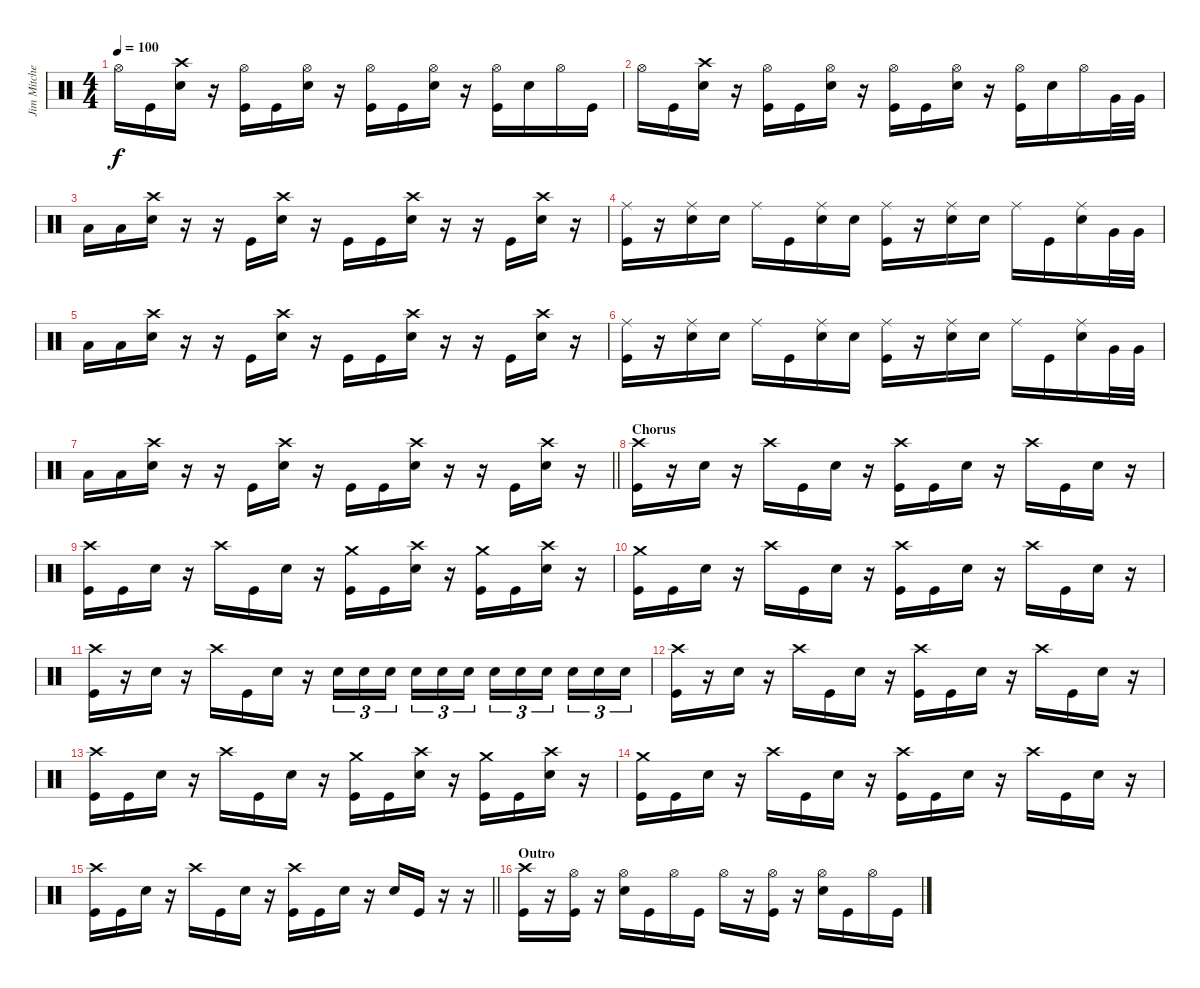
\track ("Jim Mitchell" "Jim Mitche") {instrument percussion}
\staff {score}
\articulation defaults
\ts (4 4)
\tempo 100
\clef neutral
\ks c "Hi-Hat (open)".16{dy f} "Kick (hit)".16
("Crash high (hit)" "Snare (hit) 2").16 r.16 ("Hi-Hat (open)" "Kick (hit)").16 "Kick (hit)".16 ("Hi-Hat (open)" "Snare (hit) 2").16 r.16 ("Hi-Hat (open)" "Kick (hit)").16 "Kick (hit)".16 ("Hi-Hat (open)" "Snare (hit) 2").16 r.16 ("Hi-Hat (open)" "Kick (hit)").16 "Snare (hit) 2".16 "Hi-Hat (open)".16 "Kick (hit)".16 |
"Hi-Hat (open)".16 "Kick (hit)".16 ("Crash high (hit)" "Snare (hit) 2").16 r.16 ("Hi-Hat (open)" "Kick (hit)").16 "Kick (hit)".16 ("Hi-Hat (open)" "Snare (hit) 2").16 r.16 ("Hi-Hat (open)" "Kick (hit)").16 "Kick (hit)".16 ("Hi-Hat (open)" "Snare (hit) 2").16 r.16 ("Hi-Hat (open)" "Kick (hit)").16 "Snare (hit) 2".16 "Hi-Hat (open)".16 "Very Low Tom (hit)".32 "Very Low Tom (hit)".32 |
"Low Floor Tom (hit)".16 "Low Floor Tom (hit)".16 ("Crash high (hit)" "Snare (hit) 2").16 r.16 r.16 "Kick (hit)".16 ("Crash high (hit)" "Snare (hit) 2").16 r.16 "Kick (hit)".16 "Kick (hit)".16 ("Crash high (hit)" "Snare (hit) 2").16 r.16 r.16 "Kick (hit)".16 ("Crash high (hit)" "Snare (hit) 2").16 r.16 |
("Ride (middle)" "Kick (hit)").16 r.16 ("Ride (middle)" "Snare (hit) 2").16 "Snare (hit) 2".16 "Ride (middle)".16 "Kick (hit)".16 ("Ride (middle)" "Snare (hit) 2").16 "Snare (hit) 2".16 ("Ride (middle)" "Kick (hit)").16 r.16 ("Ride (middle)" "Snare (hit) 2").16 "Snare (hit) 2".16 "Ride (middle)".16 "Kick (hit)".16 ("Ride (middle)" "Snare (hit) 2").16 "Very Low Tom (hit)".32 "Very Low Tom (hit)".32 |
"Low Floor Tom (hit)".16 "Low Floor Tom (hit)".16 ("Crash high (hit)" "Snare (hit) 2").16 r.16 r.16 "Kick (hit)".16 ("Crash high (hit)" "Snare (hit) 2").16 r.16 "Kick (hit)".16 "Kick (hit)".16 ("Crash high (hit)" "Snare (hit) 2").16 r.16 r.16 "Kick (hit)".16 ("Crash high (hit)" "Snare (hit) 2").16 r.16 |
("Ride (middle)" "Kick (hit)").16 r.16 ("Ride (middle)" "Snare (hit) 2").16 "Snare (hit) 2".16 "Ride (middle)".16 "Kick (hit)".16 ("Ride (middle)" "Snare (hit) 2").16 "Snare (hit) 2".16 ("Ride (middle)" "Kick (hit)").16 r.16 ("Ride (middle)" "Snare (hit) 2").16 "Snare (hit) 2".16 "Ride (middle)".16 "Kick (hit)".16 ("Ride (middle)" "Snare (hit) 2").16 "Very Low Tom (hit)".32 "Very Low Tom (hit)".32 |
\barLineRight lightlight "Low Floor Tom (hit)".16 "Low Floor Tom (hit)".16
("Crash high (hit)" "Snare (hit) 2").16 r.16 r.16 "Kick (hit)".16 ("Crash high (hit)" "Snare (hit) 2").16 r.16 "Kick (hit)".16 "Kick (hit)".16 ("Crash high (hit)" "Snare (hit) 2").16 r.16 r.16 "Kick (hit)".16 ("Crash high (hit)" "Snare (hit) 2").16 r.16 |
\section ("" "Chorus")
("Crash high (hit)" "Kick (hit)").16 r.16 "Snare (hit) 2".16 r.16 "Crash high (hit)".16 "Kick (hit)".16 "Snare (hit) 2".16 r.16 ("Crash high (hit)" "Kick (hit)").16 "Kick (hit)".16 "Snare (hit) 2".16 r.16 "Crash high (hit)".16 "Kick (hit)".16 "Snare (hit) 2".16 r.16 |
("Crash high (hit)" "Kick (hit)").16 "Kick (hit)".16 "Snare (hit) 2".16 r.16 "Crash high (hit)".16 "Kick (hit)".16 "Snare (hit) 2".16 r.16 ("Crash medium (hit)" "Kick (hit)").16 "Kick (hit)".16 ("Crash high (hit)" "Snare (hit) 2").16 r.16 ("Crash medium (hit)" "Kick (hit)").16 "Kick (hit)".16 ("Crash high (hit)" "Snare (hit) 2").16 r.16 |
("Crash medium (hit)" "Kick (hit)").16 "Kick (hit)".16 "Snare (hit) 2".16 r.16 "Crash high (hit)".16 "Kick (hit)".16 "Snare (hit) 2".16 r.16 ("Crash high (hit)" "Kick (hit)").16 "Kick (hit)".16 "Snare (hit) 2".16 r.16 "Crash high (hit)".16 "Kick (hit)".16 "Snare (hit) 2".16 r.16 |
("Crash high (hit)" "Kick (hit)").16 r.16 "Snare (hit) 2".16 r.16 "Crash high (hit)".16 "Kick (hit)".16 "Snare (hit) 2".16 r.16 "Snare (hit) 2".16{tu (3 2)} "Snare (hit) 2".16{tu (3 2)} "Snare (hit) 2".16{tu (3 2) beam splitsecondary} "Snare (hit) 2".16{tu (3 2)} "Snare (hit) 2".16{tu (3 2)} "Snare (hit) 2".16{tu (3 2)} "Snare (hit) 2".16{tu (3 2)} "Snare (hit) 2".16{tu (3 2)} "Snare (hit) 2".16{tu (3 2) beam splitsecondary} "Snare (hit) 2".16{tu (3 2)} "Snare (hit) 2".16{tu (3 2)} "Snare (hit) 2".16{tu (3 2)} |
("Crash high (hit)" "Kick (hit)").16 r.16 "Snare (hit) 2".16 r.16 "Crash high (hit)".16 "Kick (hit)".16 "Snare (hit) 2".16 r.16 ("Crash high (hit)" "Kick (hit)").16 "Kick (hit)".16 "Snare (hit) 2".16 r.16 "Crash high (hit)".16 "Kick (hit)".16 "Snare (hit) 2".16 r.16 |
("Crash high (hit)" "Kick (hit)").16 "Kick (hit)".16 "Snare (hit) 2".16 r.16 "Crash high (hit)".16 "Kick (hit)".16 "Snare (hit) 2".16 r.16 ("Crash medium (hit)" "Kick (hit)").16 "Kick (hit)".16 ("Crash high (hit)" "Snare (hit) 2").16 r.16 ("Crash medium (hit)" "Kick (hit)").16 "Kick (hit)".16 ("Crash high (hit)" "Snare (hit) 2").16 r.16 |
("Crash medium (hit)" "Kick (hit)").16 "Kick (hit)".16 "Snare (hit) 2".16 r.16 "Crash high (hit)".16 "Kick (hit)".16 "Snare (hit) 2".16 r.16 ("Crash high (hit)" "Kick (hit)").16 "Kick (hit)".16 "Snare (hit) 2".16 r.16 "Crash high (hit)".16 "Kick (hit)".16 "Snare (hit) 2".16 r.16 |
\barLineRight lightlight
("Crash high (hit)" "Kick (hit)").16 "Kick (hit)".16 "Snare (hit) 2".16 r.16 "Crash high (hit)".16 "Kick (hit)".16 "Snare (hit) 2".16 r.16 ("Crash high (hit)" "Kick (hit)").16 "Kick (hit)".16 "Snare (hit) 2".16 r.16 "Snare (hit) 2".16 "Kick (hit)".16 r.16 r.16 |
\section ("" "Outro")
("Crash high (hit)" "Kick (hit)").16 r.16 ("Hi-Hat (open)" "Kick (hit)").16 r.16 ("Hi-Hat (open)" "Snare (hit) 2").16 "Kick (hit)".16 "Hi-Hat (open)".16 "Kick (hit)".16 "Hi-Hat (open)".16 r.16 ("Hi-Hat (open)" "Kick (hit)").16 r.16 ("Hi-Hat (open)" "Snare (hit) 2").16 "Kick (hit)".16 "Hi-Hat (open)".16 "Kick (hit)".16
